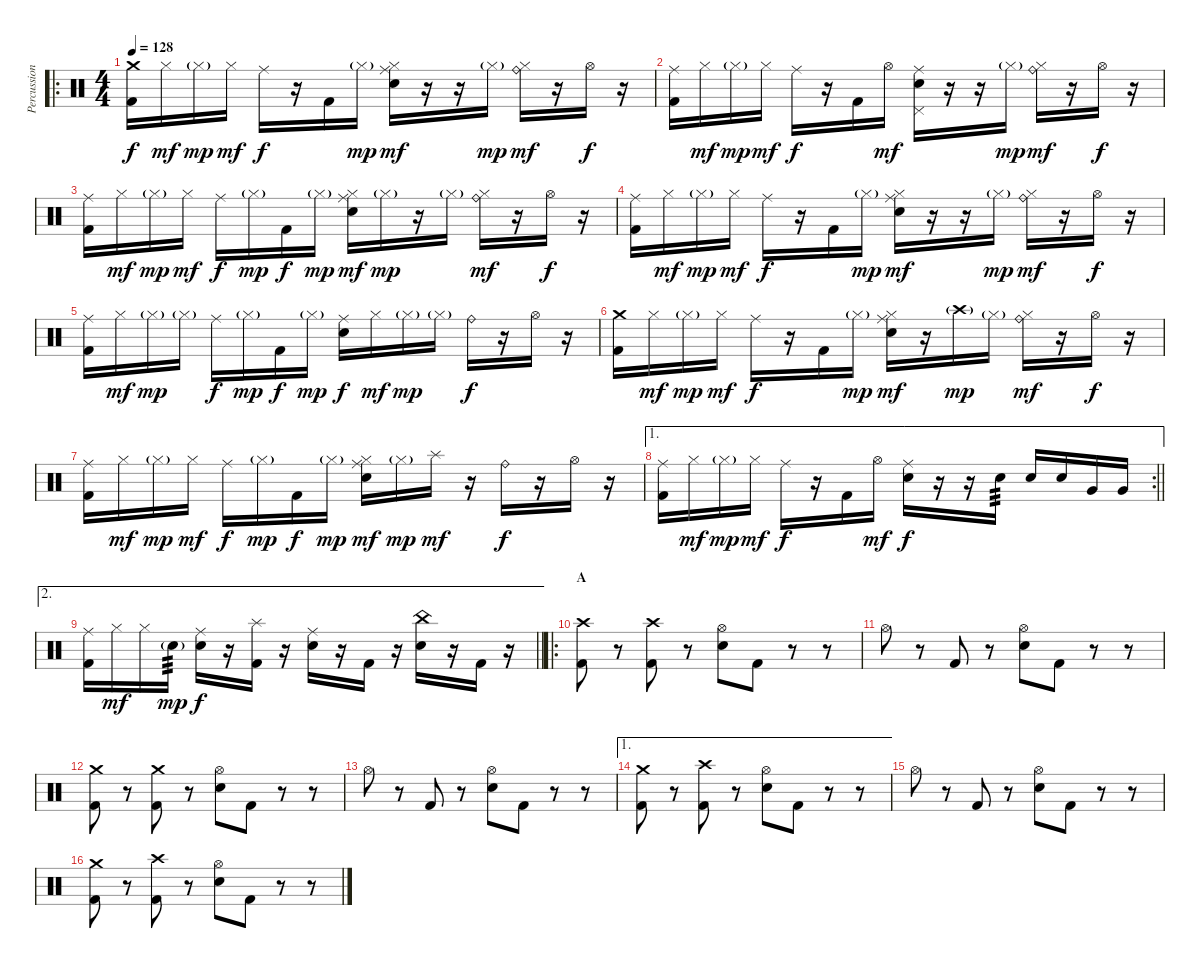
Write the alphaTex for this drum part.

\track ("Percussion" "Percussion") {instrument percussion}
\staff {score}
\articulation defaults
\ro
\ts (4 4)
\tempo 128
\clef neutral
\ks c
("Crash medium (hit)" "Kick (hit) 2").16{dy f} "Hi-Hat (closed)".16{dy mf} "Hi-Hat (closed)"{g}.16{dy mp} "Hi-Hat (closed)".16{dy mf} "Ride (middle)".16{dy f} r.16 "Kick (hit) 2".16 "Hi-Hat (closed)"{g}.16{dy mp} ("Ride (middle)" "Hi-Hat (closed)" "Snare (hit) 2").16{dy mf} r.16 r.16 "Hi-Hat (closed)"{g}.16{dy mp} ("Ride (bell)" "Hi-Hat (closed)").16{dy mf} r.16 "Hi-Hat (open)".16{dy f} r.16 |
("Ride (middle)" "Kick (hit) 2").16 "Hi-Hat (closed)".16{dy mf} "Hi-Hat (closed)"{g}.16{dy mp} "Hi-Hat (closed)".16{dy mf} "Ride (middle)".16{dy f} r.16 "Kick (hit) 2".16 "Hi-Hat (open)".16{dy mf} ("Ride (middle)" "Pedal Hi-Hat (hit)" "Snare (hit) 2").16 r.16 r.16 "Hi-Hat (closed)"{g}.16{dy mp} ("Ride (bell)" "Hi-Hat (closed)").16{dy mf} r.16 "Hi-Hat (open)".16{dy f} r.16 |
("Ride (middle)" "Kick (hit) 2").16 "Hi-Hat (closed)".16{dy mf} "Hi-Hat (closed)"{g}.16{dy mp} "Hi-Hat (closed)".16{dy mf} "Ride (middle)".16{dy f} "Hi-Hat (closed)"{g}.16{dy mp} "Kick (hit) 2".16{dy f} "Hi-Hat (closed)"{g}.16{dy mp} ("Ride (middle)" "Hi-Hat (closed)" "Snare (hit) 2").16{dy mf} "Hi-Hat (closed)"{g}.16{dy mp} r.16 "Hi-Hat (closed)"{g}.16 ("Ride (bell)" "Hi-Hat (closed)").16{dy mf} r.16 "Hi-Hat (open)".16{dy f} r.16 |
("Ride (middle)" "Kick (hit) 2").16 "Hi-Hat (closed)".16{dy mf} "Hi-Hat (closed)"{g}.16{dy mp} "Hi-Hat (closed)".16{dy mf} "Ride (middle)".16{dy f} r.16 "Kick (hit) 2".16 "Hi-Hat (closed)"{g}.16{dy mp} ("Ride (middle)" "Hi-Hat (closed)" "Snare (hit) 2").16{dy mf} r.16 r.16 "Hi-Hat (closed)"{g}.16{dy mp} ("Ride (bell)" "Hi-Hat (closed)").16{dy mf} r.16 "Hi-Hat (open)".16{dy f} r.16 |
("Ride (middle)" "Kick (hit) 2").16 "Hi-Hat (closed)".16{dy mf} "Hi-Hat (closed)"{g}.16{dy mp} "Hi-Hat (closed)"{g}.16 "Ride (middle)".16{dy f} "Hi-Hat (closed)"{g}.16{dy mp} "Kick (hit) 2".16{dy f} "Hi-Hat (closed)"{g}.16{dy mp} ("Ride (middle)" "Snare (hit) 2").16{dy f} "Hi-Hat (closed)".16{dy mf} "Hi-Hat (closed)"{g}.16{dy mp} "Hi-Hat (closed)"{g}.16 "Ride (bell)".16{dy f} r.16 "Hi-Hat (open)".16 r.16 |
("Crash medium (hit)" "Kick (hit) 2").16 "Hi-Hat (closed)".16{dy mf} "Hi-Hat (closed)"{g}.16{dy mp} "Hi-Hat (closed)".16{dy mf} "Ride (middle)".16{dy f} r.16 "Kick (hit) 2".16 "Hi-Hat (closed)"{g}.16{dy mp} ("Ride (middle)" "Hi-Hat (closed)" "Snare (hit) 2").16{dy mf} r.16 "Crash high (hit)"{g}.16{dy mp} "Hi-Hat (closed)"{g}.16 ("Ride (bell)" "Hi-Hat (closed)").16{dy mf} r.16 "Hi-Hat (open)".16{dy f} r.16 |
("Ride (middle)" "Kick (hit) 2").16 "Hi-Hat (closed)".16{dy mf} "Hi-Hat (closed)"{g}.16{dy mp} "Hi-Hat (closed)".16{dy mf} "Ride (middle)".16{dy f} "Hi-Hat (closed)"{g}.16{dy mp} "Kick (hit) 2".16{dy f} "Hi-Hat (closed)"{g}.16{dy mp} ("Ride (middle)" "Hi-Hat (closed)" "Snare (hit) 2").16{dy mf} "Hi-Hat (closed)"{g}.16{dy mp} "Splash (hit)".16{dy mf} r.16 "Ride (bell)".16{dy f} r.16 "Hi-Hat (open)".16 r.16 |
\ae 1
\rc 2
\barLineRight lightlight
("Ride (middle)" "Kick (hit) 2").16 "Hi-Hat (closed)".16{dy mf} "Hi-Hat (closed)"{g}.16{dy mp} "Hi-Hat (closed)".16{dy mf} "Ride (middle)".16{dy f} r.16 "Kick (hit) 2".16 "Hi-Hat (open)".16{dy mf} ("Ride (middle)" "Snare (hit) 2").16{dy f} r.16 r.16 "Snare (hit) 2".16{tp 3} "Snare (hit) 2".16 "Snare (hit) 2".16 "Very Low Tom (hit)".16 "Very Low Tom (hit)".16 |
\ae 2
\barLineRight lightlight
("Ride (middle)" "Kick (hit) 2").16 "Hi-Hat (closed)".16{dy mf} "Hi-Hat (closed)".16 "Snare (hit) 2"{g}.16{tp 3 dy mp} ("Ride (middle)" "Snare (hit) 2").16{dy f} r.16 ("Splash (hit)" "Kick (hit) 2").16 r.16 ("Ride (middle)" "Snare (hit) 2").16 r.16 "Kick (hit) 2".16 r.16 ("China (hit)" "Snare (hit) 2").16 r.16 "Kick (hit) 2".16 r.16 |
\ro
\section ("" "A")
("Crash high (hit)" "Kick (hit) 2").8 r.8 ("Crash high (hit)" "Kick (hit) 2").8 r.8 ("Hi-Hat (open)" "Snare (hit) 2").8 "Kick (hit) 2".8 r.8 r.8 |
"Hi-Hat (open)".8 r.8 "Kick (hit) 2".8 r.8 ("Hi-Hat (open)" "Snare (hit) 2").8 "Kick (hit) 2".8 r.8 r.8 |
("Crash medium (hit)" "Kick (hit) 2").8 r.8 ("Crash medium (hit)" "Kick (hit) 2").8 r.8 ("Hi-Hat (open)" "Snare (hit) 2").8 "Kick (hit) 2".8 r.8 r.8 |
"Hi-Hat (open)".8 r.8 "Kick (hit) 2".8 r.8 ("Hi-Hat (open)" "Snare (hit) 2").8 "Kick (hit) 2".8 r.8 r.8 |
\ae 1
("Crash medium (hit)" "Kick (hit) 2").8 r.8 ("Crash high (hit)" "Kick (hit) 2").8 r.8 ("Hi-Hat (open)" "Snare (hit) 2").8 "Kick (hit) 2".8 r.8 r.8 |
"Hi-Hat (open)".8 r.8 "Kick (hit) 2".8 r.8 ("Hi-Hat (open)" "Snare (hit) 2").8 "Kick (hit) 2".8 r.8 r.8 |
("Crash medium (hit)" "Kick (hit) 2").8 r.8 ("Crash high (hit)" "Kick (hit) 2").8 r.8 ("Hi-Hat (open)" "Snare (hit) 2").8 "Kick (hit) 2".8 r.8 r.8
